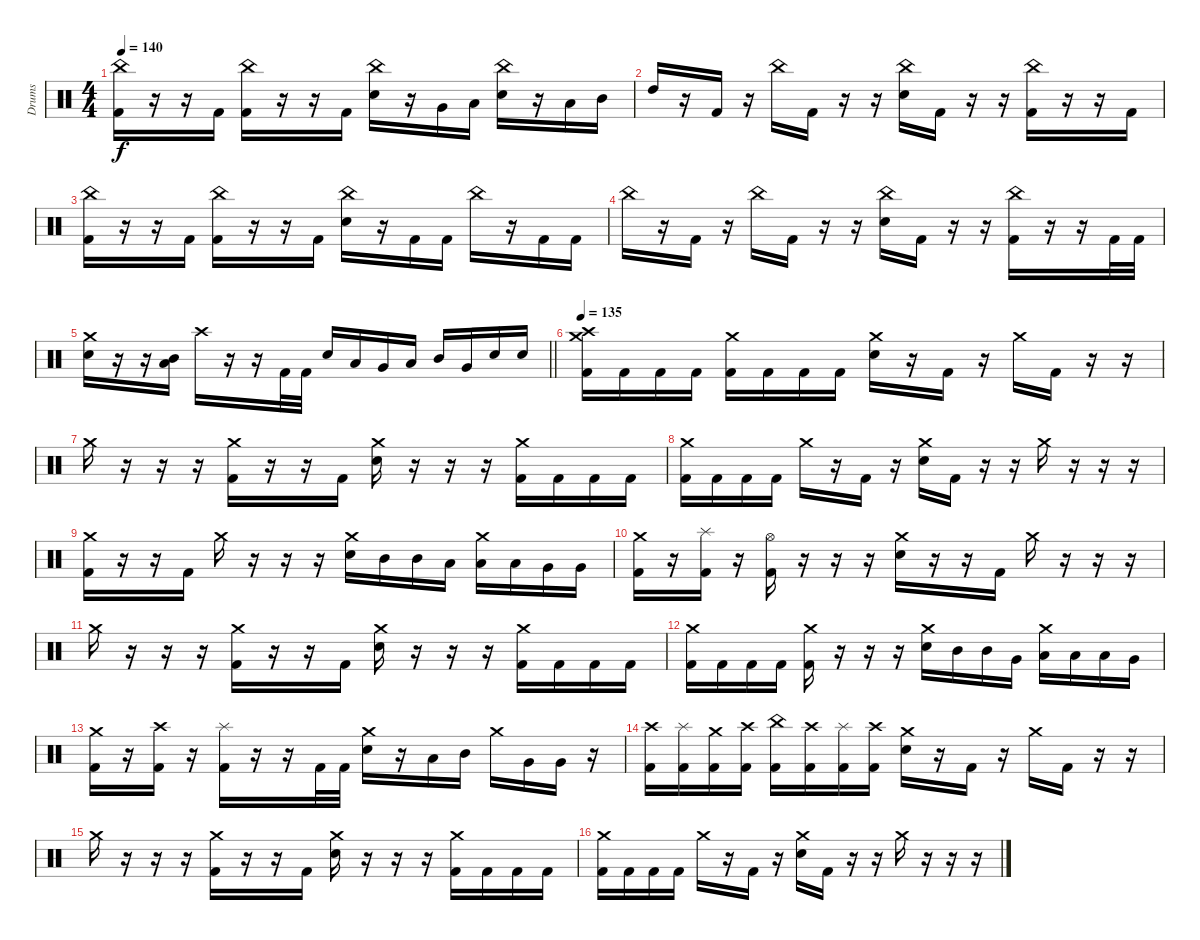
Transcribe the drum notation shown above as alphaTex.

\track ("Drums" "Drums") {instrument percussion}
\staff {score}
\articulation defaults
\ts (4 4)
\tempo 140
\clef neutral
\ks c
("China (hit)" "Kick (hit) 2").16{dy f} r.16 r.16 "Kick (hit) 2".16 ("China (hit)" "Kick (hit) 2").16 r.16 r.16 "Kick (hit) 2".16 ("China (hit)" "Electric Snare (hit)").16 r.16 "Very Low Tom (hit)".16 "Low Tom (hit)".16 ("China (hit)" "Electric Snare (hit)").16 r.16 "Low Tom (hit)".16 "Mid Tom (hit)".16 |
"High Tom (hit)".16 r.16 "Kick (hit) 2".16 r.16 "China (hit)".16 "Kick (hit) 2".16 r.16 r.16 ("China (hit)" "Electric Snare (hit)").16 "Kick (hit) 2".16 r.16 r.16 ("China (hit)" "Kick (hit) 2").16 r.16 r.16 "Kick (hit) 2".16 |
("China (hit)" "Kick (hit) 2").16 r.16 r.16 "Kick (hit) 2".16 ("China (hit)" "Kick (hit) 2").16 r.16 r.16 "Kick (hit) 2".16 ("China (hit)" "Electric Snare (hit)").16 r.16 "Kick (hit) 2".16 "Kick (hit) 2".16 "China (hit)".16 r.16 "Kick (hit) 2".16 "Kick (hit) 2".16 |
"China (hit)".16 r.16 "Kick (hit) 2".16 r.16 "China (hit)".16 "Kick (hit) 2".16 r.16 r.16 ("China (hit)" "Electric Snare (hit)").16 "Kick (hit) 2".16 r.16 r.16 ("China (hit)" "Kick (hit) 2").16 r.16 r.16 "Kick (hit) 2".32 "Kick (hit) 2".32 |
\barLineRight lightlight
("Crash medium (hit)" "Electric Snare (hit)").16 r.16 r.16 ("Mid Tom (hit)" "Low Tom (hit)").16 "Crash high (hit)".16 r.16 r.16 "Kick (hit) 2".32 "Kick (hit) 2".32 "Electric Snare (hit)".16 "Low Tom (hit)".16 "Very Low Tom (hit)".16 "Low Tom (hit)".16 "Mid Tom (hit)".16 "Very Low Tom (hit)".16 "Electric Snare (hit)".16 "Electric Snare (hit)".16 |
\section ("" "")
\tempo 135
("Crash high (hit)" "Crash medium (hit)" "Kick (hit) 2").16 "Kick (hit) 2".16 "Kick (hit) 2".16 "Kick (hit) 2".16 ("Crash medium (hit)" "Kick (hit) 2").16 "Kick (hit) 2".16 "Kick (hit) 2".16 "Kick (hit) 2".16 ("Crash medium (hit)" "Electric Snare (hit)").16 r.16 "Kick (hit) 2".16 r.16 "Crash medium (hit)".16 "Kick (hit) 2".16 r.16 r.16 |
"Crash medium (hit)".16 r.16 r.16 r.16 ("Crash medium (hit)" "Kick (hit) 2").16 r.16 r.16 "Kick (hit) 2".16 ("Crash medium (hit)" "Electric Snare (hit)").16 r.16 r.16 r.16 ("Crash medium (hit)" "Kick (hit) 2").16 "Kick (hit) 2".16 "Kick (hit) 2".16 "Kick (hit) 2".16 |
("Crash medium (hit)" "Kick (hit) 2").16 "Kick (hit) 2".16 "Kick (hit) 2".16 "Kick (hit) 2".16 "Crash medium (hit)".16 r.16 "Kick (hit) 2".16 r.16 ("Crash medium (hit)" "Electric Snare (hit)").16 "Kick (hit) 2".16 r.16 r.16 "Crash medium (hit)".16 r.16 r.16 r.16 |
("Crash medium (hit)" "Kick (hit) 2").16 r.16 r.16 "Kick (hit) 2".16 "Crash medium (hit)".16 r.16 r.16 r.16 ("Crash medium (hit)" "Electric Snare (hit)").16 "Mid Tom (hit)".16 "Mid Tom (hit)".16 "Low Tom (hit)".16 ("Crash medium (hit)" "Low Tom (hit)").16 "Low Tom (hit)".16 "Very Low Tom (hit)".16 "Very Low Tom (hit)".16 |
("Crash medium (hit)" "Kick (hit) 2").16 r.16 ("Splash (hit)" "Kick (hit) 2").16 r.16 ("Hi-Hat (open)" "Kick (hit) 2").16 r.16 r.16 r.16 ("Crash medium (hit)" "Electric Snare (hit)").16 r.16 r.16 "Kick (hit) 2".16 "Crash medium (hit)".16 r.16 r.16 r.16 |
"Crash medium (hit)".16 r.16 r.16 r.16 ("Crash medium (hit)" "Kick (hit) 2").16 r.16 r.16 "Kick (hit) 2".16 ("Crash medium (hit)" "Electric Snare (hit)").16 r.16 r.16 r.16 ("Crash medium (hit)" "Kick (hit) 2").16 "Kick (hit) 2".16 "Kick (hit) 2".16 "Kick (hit) 2".16 |
("Crash medium (hit)" "Kick (hit) 2").16 "Kick (hit) 2".16 "Kick (hit) 2".16 "Kick (hit) 2".16 ("Crash medium (hit)" "Kick (hit) 2").16 r.16 r.16 r.16 ("Crash medium (hit)" "Electric Snare (hit)").16 "Mid Tom (hit)".16 "Mid Tom (hit)".16 "Very Low Tom (hit)".16 ("Crash medium (hit)" "Low Tom (hit)").16 "Low Tom (hit)".16 "Low Tom (hit)".16 "Very Low Tom (hit)".16 |
("Crash medium (hit)" "Kick (hit) 2").16 r.16 ("Crash high (hit)" "Kick (hit) 2").16 r.16 ("Splash (hit)" "Kick (hit) 2").16 r.16 r.16 "Kick (hit) 2".32 "Kick (hit) 2".32 ("Crash medium (hit)" "Electric Snare (hit)").16 r.16 "Low Tom (hit)".16 "Mid Tom (hit)".16 "Crash medium (hit)".16 "Very Low Tom (hit)".16 "Very Low Tom (hit)".16 r.16 |
("Crash high (hit)" "Kick (hit) 2").16 ("Splash (hit)" "Kick (hit) 2").16 ("Crash medium (hit)" "Kick (hit) 2").16 ("Crash high (hit)" "Kick (hit) 2").16 ("China (hit)" "Kick (hit) 2").16 ("Crash high (hit)" "Kick (hit) 2").16 ("Splash (hit)" "Kick (hit) 2").16 ("Crash high (hit)" "Kick (hit) 2").16 ("Crash medium (hit)" "Electric Snare (hit)").16 r.16 "Kick (hit) 2".16 r.16 "Crash medium (hit)".16 "Kick (hit) 2".16 r.16 r.16 |
"Crash medium (hit)".16 r.16 r.16 r.16 ("Crash medium (hit)" "Kick (hit) 2").16 r.16 r.16 "Kick (hit) 2".16 ("Crash medium (hit)" "Electric Snare (hit)").16 r.16 r.16 r.16 ("Crash medium (hit)" "Kick (hit) 2").16 "Kick (hit) 2".16 "Kick (hit) 2".16 "Kick (hit) 2".16 |
("Crash medium (hit)" "Kick (hit) 2").16 "Kick (hit) 2".16 "Kick (hit) 2".16 "Kick (hit) 2".16 "Crash medium (hit)".16 r.16 "Kick (hit) 2".16 r.16 ("Crash medium (hit)" "Electric Snare (hit)").16 "Kick (hit) 2".16 r.16 r.16 "Crash medium (hit)".16 r.16 r.16 r.16
